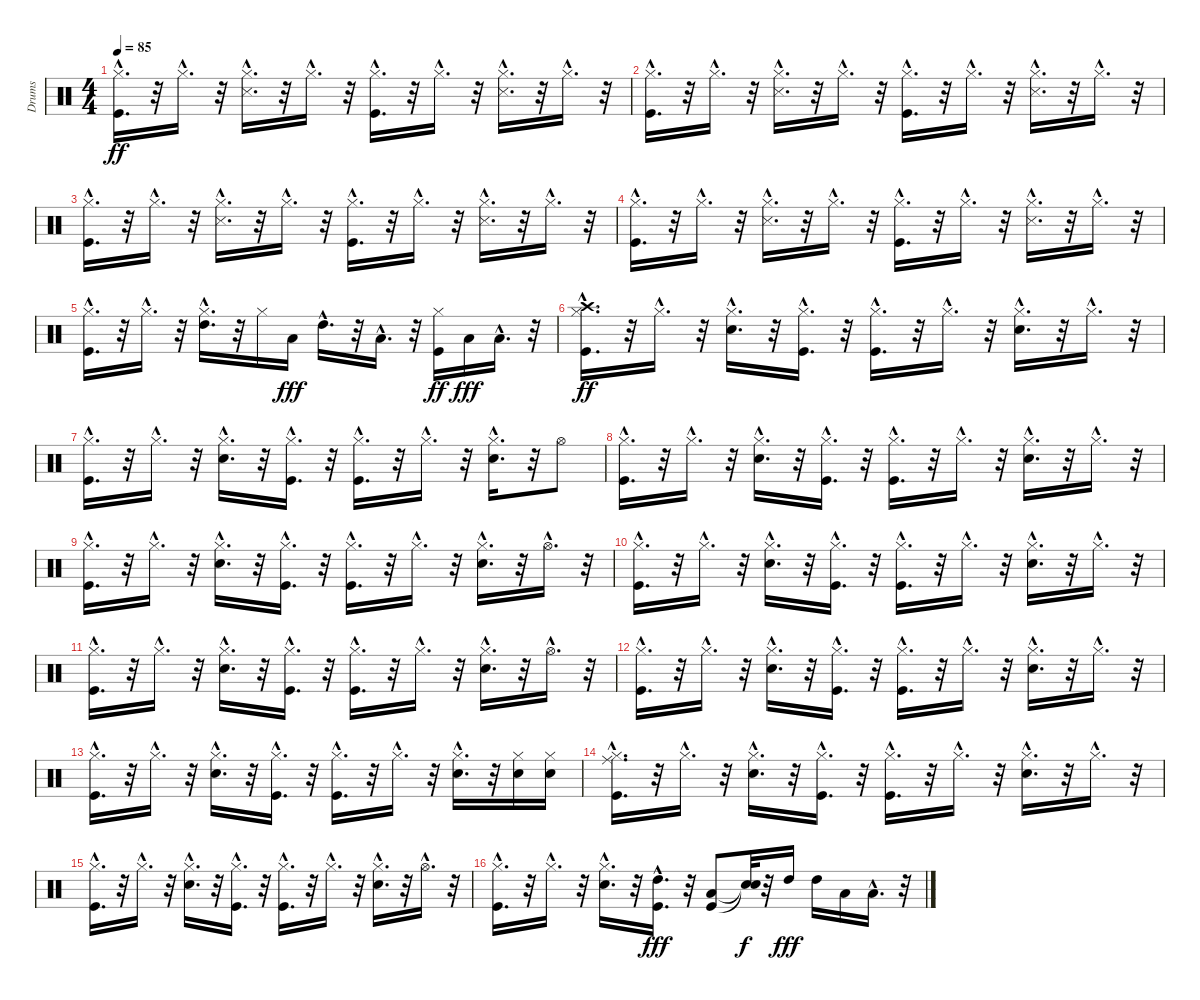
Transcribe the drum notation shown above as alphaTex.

\track ("Drums" "Drums") {instrument percussion}
\staff {score}
\articulation defaults
\ts (4 4)
\tempo 85
\clef neutral
\ks c
("Kick (hit)"{hac} "Hi-Hat (closed)"{hac}).16{d dy ff} r.32 "Hi-Hat (closed)"{hac}.16{d} r.32 ("Snare (side stick) 3"{hac} "Hi-Hat (closed)"{hac}).16{d} r.32 "Hi-Hat (closed)"{hac}.16{d} r.32 ("Kick (hit)"{hac} "Hi-Hat (closed)"{hac}).16{d} r.32 "Hi-Hat (closed)"{hac}.16{d} r.32 ("Snare (side stick) 3"{hac} "Hi-Hat (closed)"{hac}).16{d} r.32 "Hi-Hat (closed)"{hac}.16{d} r.32 |
("Kick (hit)"{hac} "Hi-Hat (closed)"{hac}).16{d} r.32 "Hi-Hat (closed)"{hac}.16{d} r.32 ("Snare (side stick) 3"{hac} "Hi-Hat (closed)"{hac}).16{d} r.32 "Hi-Hat (closed)"{hac}.16{d} r.32 ("Kick (hit)"{hac} "Hi-Hat (closed)"{hac}).16{d} r.32 "Hi-Hat (closed)"{hac}.16{d} r.32 ("Snare (side stick) 3"{hac} "Hi-Hat (closed)"{hac}).16{d} r.32 "Hi-Hat (closed)"{hac}.16{d} r.32 |
("Kick (hit)"{hac} "Hi-Hat (closed)"{hac}).16{d} r.32 "Hi-Hat (closed)"{hac}.16{d} r.32 ("Snare (side stick) 3"{hac} "Hi-Hat (closed)"{hac}).16{d} r.32 "Hi-Hat (closed)"{hac}.16{d} r.32 ("Kick (hit)"{hac} "Hi-Hat (closed)"{hac}).16{d} r.32 "Hi-Hat (closed)"{hac}.16{d} r.32 ("Snare (side stick) 3"{hac} "Hi-Hat (closed)"{hac}).16{d} r.32 "Hi-Hat (closed)"{hac}.16{d} r.32 |
("Kick (hit)"{hac} "Hi-Hat (closed)"{hac}).16{d} r.32 "Hi-Hat (closed)"{hac}.16{d} r.32 ("Snare (side stick) 3"{hac} "Hi-Hat (closed)"{hac}).16{d} r.32 "Hi-Hat (closed)"{hac}.16{d} r.32 ("Kick (hit)"{hac} "Hi-Hat (closed)"{hac}).16{d} r.32 "Hi-Hat (closed)"{hac}.16{d} r.32 ("Snare (side stick) 3"{hac} "Hi-Hat (closed)"{hac}).16{d} r.32 "Hi-Hat (closed)"{hac}.16{d} r.32 |
("Kick (hit)"{hac} "Hi-Hat (closed)"{hac}).16{d} r.32 "Hi-Hat (closed)"{hac}.16{d} r.32 ("High Tom (hit)"{hac} "Hi-Hat (closed)"{hac}).16{d} r.32 "Hi-Hat (closed)".16 "Low Tom (hit)".16{dy fff} "High Tom (hit)"{hac}.16{d} r.32 "Low Tom (hit)"{hac}.16{d} r.32 ("Kick (hit)" "Hi-Hat (closed)").16{dy ff} "Low Tom (hit)".16{dy fff} "Low Floor Tom (hit)"{hac}.16{d} r.32 |
("Crash high (hit)"{hac} "Kick (hit)"{hac} "Hi-Hat (closed)"{hac}).16{d dy ff} r.32 "Hi-Hat (closed)"{hac}.16{d} r.32 ("Snare (hit) 2"{hac} "Hi-Hat (closed)"{hac}).16{d} r.32 ("Kick (hit)"{hac} "Hi-Hat (closed)"{hac}).16{d} r.32 ("Kick (hit)"{hac} "Hi-Hat (closed)"{hac}).16{d} r.32 "Hi-Hat (closed)"{hac}.16{d} r.32 ("Snare (hit) 2"{hac} "Hi-Hat (closed)"{hac}).16{d} r.32 "Hi-Hat (closed)"{hac}.16{d} r.32 |
("Hi-Hat (closed)"{hac} "Kick (hit)"{hac}).16{d} r.32 "Hi-Hat (closed)"{hac}.16{d} r.32 ("Hi-Hat (closed)"{hac} "Snare (hit) 2"{hac}).16{d} r.32 ("Kick (hit)"{hac} "Hi-Hat (closed)"{hac}).16{d} r.32 ("Hi-Hat (closed)"{hac} "Kick (hit)"{hac}).16{d} r.32 "Hi-Hat (closed)"{hac}.16{d} r.32 ("Hi-Hat (closed)"{hac} "Snare (hit) 2"{hac}).16{d} r.32 "Hi-Hat (open)".8 |
("Kick (hit)"{hac} "Hi-Hat (closed)"{hac}).16{d} r.32 "Hi-Hat (closed)"{hac}.16{d} r.32 ("Snare (hit) 2"{hac} "Hi-Hat (closed)"{hac}).16{d} r.32 ("Kick (hit)"{hac} "Hi-Hat (closed)"{hac}).16{d} r.32 ("Kick (hit)"{hac} "Hi-Hat (closed)"{hac}).16{d} r.32 "Hi-Hat (closed)"{hac}.16{d} r.32 ("Snare (hit) 2"{hac} "Hi-Hat (closed)"{hac}).16{d} r.32 "Hi-Hat (closed)"{hac}.16{d} r.32 |
("Kick (hit)"{hac} "Hi-Hat (closed)"{hac}).16{d} r.32 "Hi-Hat (closed)"{hac}.16{d} r.32 ("Snare (hit) 2"{hac} "Hi-Hat (closed)"{hac}).16{d} r.32 ("Kick (hit)"{hac} "Hi-Hat (closed)"{hac}).16{d} r.32 ("Kick (hit)"{hac} "Hi-Hat (closed)"{hac}).16{d} r.32 "Hi-Hat (closed)"{hac}.16{d} r.32 ("Snare (hit) 2"{hac} "Hi-Hat (closed)"{hac}).16{d} r.32 "Hi-Hat (open)"{hac}.16{d} r.32 |
("Kick (hit)"{hac} "Hi-Hat (closed)"{hac}).16{d} r.32 "Hi-Hat (closed)"{hac}.16{d} r.32 ("Snare (hit) 2"{hac} "Hi-Hat (closed)"{hac}).16{d} r.32 ("Kick (hit)"{hac} "Hi-Hat (closed)"{hac}).16{d} r.32 ("Kick (hit)"{hac} "Hi-Hat (closed)"{hac}).16{d} r.32 "Hi-Hat (closed)"{hac}.16{d} r.32 ("Snare (hit) 2"{hac} "Hi-Hat (closed)"{hac}).16{d} r.32 "Hi-Hat (closed)"{hac}.16{d} r.32 |
("Kick (hit)"{hac} "Hi-Hat (closed)"{hac}).16{d} r.32 "Hi-Hat (closed)"{hac}.16{d} r.32 ("Snare (hit) 2"{hac} "Hi-Hat (closed)"{hac}).16{d} r.32 ("Kick (hit)"{hac} "Hi-Hat (closed)"{hac}).16{d} r.32 ("Kick (hit)"{hac} "Hi-Hat (closed)"{hac}).16{d} r.32 "Hi-Hat (closed)"{hac}.16{d} r.32 ("Snare (hit) 2"{hac} "Hi-Hat (closed)"{hac}).16{d} r.32 "Hi-Hat (open)"{hac}.16{d} r.32 |
("Hi-Hat (closed)"{hac} "Kick (hit)"{hac}).16{d} r.32 "Hi-Hat (closed)"{hac}.16{d} r.32 ("Hi-Hat (closed)"{hac} "Snare (hit) 2"{hac}).16{d} r.32 ("Kick (hit)"{hac} "Hi-Hat (closed)"{hac}).16{d} r.32 ("Hi-Hat (closed)"{hac} "Kick (hit)"{hac}).16{d} r.32 "Hi-Hat (closed)"{hac}.16{d} r.32 ("Hi-Hat (closed)"{hac} "Snare (hit) 2"{hac}).16{d} r.32 "Hi-Hat (closed)"{hac}.16{d} r.32 |
("Hi-Hat (closed)"{hac} "Kick (hit)"{hac}).16{d} r.32 "Hi-Hat (closed)"{hac}.16{d} r.32 ("Hi-Hat (closed)"{hac} "Snare (hit) 2"{hac}).16{d} r.32 ("Kick (hit)"{hac} "Hi-Hat (closed)"{hac}).16{d} r.32 ("Hi-Hat (closed)"{hac} "Kick (hit)"{hac}).16{d} r.32 "Hi-Hat (closed)"{hac}.16{d} r.32 ("Hi-Hat (closed)"{hac} "Snare (hit) 2"{hac}).16{d} r.32 ("Hi-Hat (closed)" "Snare (hit) 2").16 ("Hi-Hat (closed)" "Snare (hit) 2").16 |
("Ride (middle)"{hac} "Hi-Hat (closed)"{hac} "Kick (hit)"{hac}).16{d} r.32 "Hi-Hat (closed)"{hac}.16{d} r.32 ("Hi-Hat (closed)"{hac} "Snare (hit) 2"{hac}).16{d} r.32 ("Kick (hit)"{hac} "Hi-Hat (closed)"{hac}).16{d} r.32 ("Hi-Hat (closed)"{hac} "Kick (hit)"{hac}).16{d} r.32 "Hi-Hat (closed)"{hac}.16{d} r.32 ("Hi-Hat (closed)"{hac} "Snare (hit) 2"{hac}).16{d} r.32 "Hi-Hat (closed)"{hac}.16{d} r.32 |
("Hi-Hat (closed)"{hac} "Kick (hit)"{hac}).16{d} r.32 "Hi-Hat (closed)"{hac}.16{d} r.32 ("Hi-Hat (closed)"{hac} "Snare (hit) 2"{hac}).16{d} r.32 ("Kick (hit)"{hac} "Hi-Hat (closed)"{hac}).16{d} r.32 ("Hi-Hat (closed)"{hac} "Kick (hit)"{hac}).16{d} r.32 "Hi-Hat (closed)"{hac}.16{d} r.32 ("Hi-Hat (closed)"{hac} "Snare (hit) 2"{hac}).16{d} r.32 "Hi-Hat (open)"{hac}.16{d} r.32 |
("Kick (hit)"{hac} "Hi-Hat (closed)"{hac}).16{d} r.32 "Hi-Hat (closed)"{hac}.16{d} r.32 ("Snare (hit) 2"{hac} "Hi-Hat (closed)"{hac}).16{d} r.32 ("Kick (hit)"{hac} "High Tom (hit)"{hac}).16{d dy fff} r.32 ("Kick (hit)" "Low Tom (hit)").8 ("Snare (hit)"{t} "Snare (hit)"{t}).32{dy f} r.32 "High Tom (hit)".16{dy fff} "High Tom (hit)".16 "Low Tom (hit)".16 "Low Tom (hit)"{hac}.16{d} r.32
